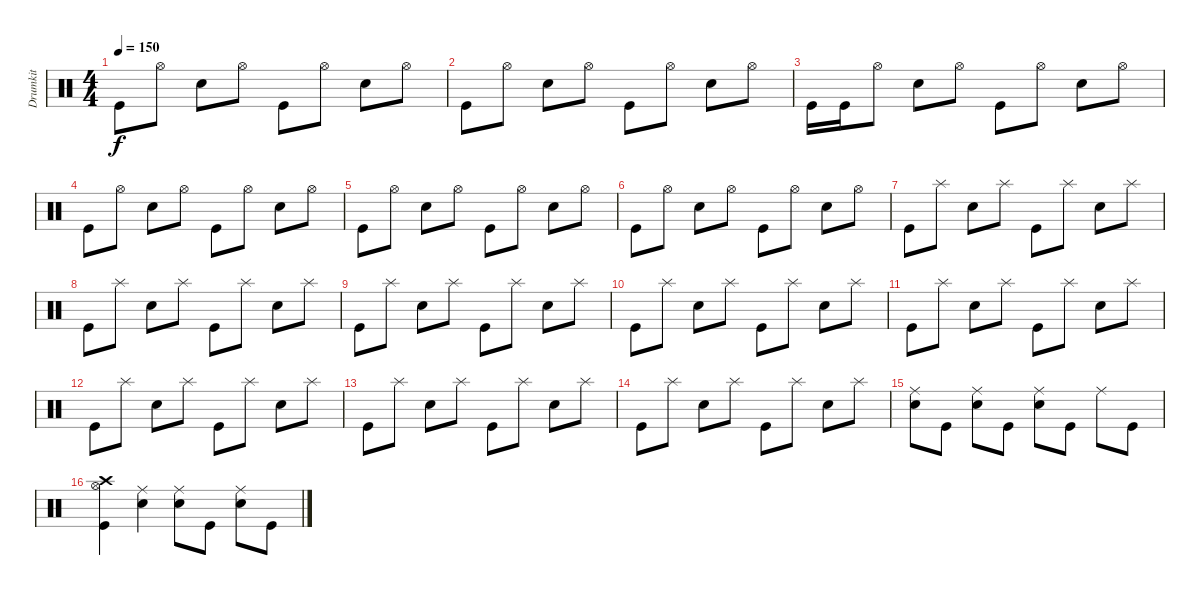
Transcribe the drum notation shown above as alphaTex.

\track ("Drumkit" "Drumkit") {instrument percussion}
\staff {score}
\articulation defaults
\ts (4 4)
\tempo 150
\clef neutral
\ks c "Kick (hit)".8{dy f} "Hi-Hat (open)".8 "Snare (hit) 2".8 "Hi-Hat (open)".8 "Kick (hit)".8 "Hi-Hat (open)".8 "Snare (hit) 2".8 "Hi-Hat (open)".8
|
"Kick (hit)".8 "Hi-Hat (open)".8 "Snare (hit) 2".8 "Hi-Hat (open)".8 "Kick (hit)".8 "Hi-Hat (open)".8 "Snare (hit) 2".8 "Hi-Hat (open)".8 |
"Kick (hit)".16 "Kick (hit)".16 "Hi-Hat (open)".8 "Snare (hit) 2".8 "Hi-Hat (open)".8 "Kick (hit)".8 "Hi-Hat (open)".8 "Snare (hit) 2".8 "Hi-Hat (open)".8 |
"Kick (hit)".8 "Hi-Hat (open)".8 "Snare (hit) 2".8 "Hi-Hat (open)".8 "Kick (hit)".8 "Hi-Hat (open)".8 "Snare (hit) 2".8 "Hi-Hat (open)".8 |
"Kick (hit)".8 "Hi-Hat (open)".8 "Snare (hit) 2".8 "Hi-Hat (open)".8 "Kick (hit)".8 "Hi-Hat (open)".8 "Snare (hit) 2".8 "Hi-Hat (open)".8 |
"Kick (hit)".8 "Hi-Hat (open)".8 "Snare (hit) 2".8 "Hi-Hat (open)".8 "Kick (hit)".8 "Hi-Hat (open)".8 "Snare (hit) 2".8 "Hi-Hat (open)".8 |
"Kick (hit)".8 "Splash (hit)".8 "Snare (hit) 2".8 "Splash (hit)".8 "Kick (hit)".8 "Splash (hit)".8 "Snare (hit) 2".8 "Splash (hit)".8 |
"Kick (hit)".8 "Splash (hit)".8 "Snare (hit) 2".8 "Splash (hit)".8 "Kick (hit)".8 "Splash (hit)".8 "Snare (hit) 2".8 "Splash (hit)".8 |
"Kick (hit)".8 "Splash (hit)".8 "Snare (hit) 2".8 "Splash (hit)".8 "Kick (hit)".8 "Splash (hit)".8 "Snare (hit) 2".8 "Splash (hit)".8 |
"Kick (hit)".8 "Splash (hit)".8 "Snare (hit) 2".8 "Splash (hit)".8 "Kick (hit)".8 "Splash (hit)".8 "Snare (hit) 2".8 "Splash (hit)".8 |
"Kick (hit)".8 "Splash (hit)".8 "Snare (hit) 2".8 "Splash (hit)".8 "Kick (hit)".8 "Splash (hit)".8 "Snare (hit) 2".8 "Splash (hit)".8 |
"Kick (hit)".8 "Splash (hit)".8 "Snare (hit) 2".8 "Splash (hit)".8 "Kick (hit)".8 "Splash (hit)".8 "Snare (hit) 2".8 "Splash (hit)".8 |
"Kick (hit)".8 "Splash (hit)".8 "Snare (hit) 2".8 "Splash (hit)".8 "Kick (hit)".8 "Splash (hit)".8 "Snare (hit) 2".8 "Splash (hit)".8 |
"Kick (hit)".8 "Splash (hit)".8 "Snare (hit) 2".8 "Splash (hit)".8 "Kick (hit)".8 "Splash (hit)".8 "Snare (hit) 2".8 "Splash (hit)".8 |
("Ride (middle)" "Snare (hit) 2").8 "Kick (hit)".8 ("Ride (middle)" "Snare (hit) 2").8 "Kick (hit)".8 ("Ride (middle)" "Snare (hit) 2").8 "Kick (hit)".8 "Ride (middle)".8 "Kick (hit)".8 |
("Hi-Hat (open)" "Crash high (hit)" "Kick (hit)").4 ("Ride (middle)" "Snare (hit) 2").4 ("Ride (middle)" "Snare (hit) 2").8 "Kick (hit)".8 ("Ride (middle)" "Snare (hit) 2").8 "Kick (hit)".8
